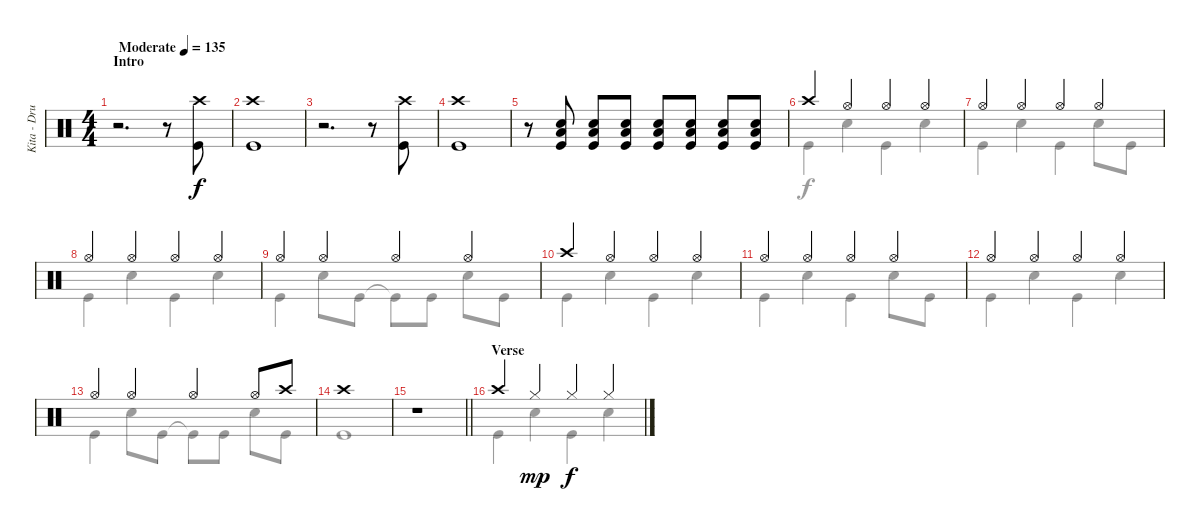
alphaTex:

\track ("Kita - Drums" "Kita - Dru") {instrument percussion}
\staff {score}
\articulation defaults
\voice
\ts (4 4)
\section ("" "Intro")
\tempo (135 "Moderate")
\clef neutral
\ks c
r.2{d dy f} r.8 ("Crash high (hit)" "Kick (hit)").8 |
("Crash high (hit)" "Kick (hit)").1 |
r.2{d} r.8 ("Crash high (hit)" "Kick (hit)").8 |
("Crash high (hit)" "Kick (hit)").1 |
r.8{volume 0} ("Snare (hit) 2" "Low Floor Tom (hit)" "Kick (hit)").8{volume 13} ("Snare (hit) 2" "Low Floor Tom (hit)" "Kick (hit)").8 ("Snare (hit) 2" "Low Floor Tom (hit)" "Kick (hit)").8 ("Snare (hit) 2" "Low Floor Tom (hit)" "Kick (hit)").8 ("Snare (hit) 2" "Low Floor Tom (hit)" "Kick (hit)").8 ("Snare (hit) 2" "Low Floor Tom (hit)" "Kick (hit)").8 ("Snare (hit) 2" "Low Floor Tom (hit)" "Kick (hit)").8 |
"Crash high (hit)".4 "Hi-Hat (open)".4 "Hi-Hat (open)".4 "Hi-Hat (open)".4 |
"Hi-Hat (open)".4 "Hi-Hat (open)".4 "Hi-Hat (open)".4 "Hi-Hat (open)".4 |
"Hi-Hat (open)".4 "Hi-Hat (open)".4 "Hi-Hat (open)".4 "Hi-Hat (open)".4 |
"Hi-Hat (open)".4 "Hi-Hat (open)".4 "Hi-Hat (open)".4 "Hi-Hat (open)".4 |
"Crash high (hit)".4 "Hi-Hat (open)".4 "Hi-Hat (open)".4 "Hi-Hat (open)".4 |
"Hi-Hat (open)".4 "Hi-Hat (open)".4 "Hi-Hat (open)".4 "Hi-Hat (open)".4 |
"Hi-Hat (open)".4 "Hi-Hat (open)".4 "Hi-Hat (open)".4 "Hi-Hat (open)".4 |
"Hi-Hat (open)".4 "Hi-Hat (open)".4 "Hi-Hat (open)".4 "Hi-Hat (open)".8 "Crash high (hit)".8 |
"Crash high (hit)".1 |
\barLineRight lightlight
r.1 |
\section ("" "Verse")
"Crash high (hit)".4 "Hi-Hat (closed)".4{dy mp} "Hi-Hat (closed)".4{dy f} "Hi-Hat (closed)".4
\voice
\clef neutral
\ottava regular
\simile none
\ks c
|
|
|
|
|
"Kick (hit)".4 "Snare (hit) 2".4 "Kick (hit)".4 "Snare (hit) 2".4 |
"Kick (hit)".4 "Snare (hit) 2".4 "Kick (hit)".4 "Snare (hit) 2".8 "Kick (hit)".8 |
"Kick (hit)".4 "Snare (hit) 2".4 "Kick (hit)".4 "Snare (hit) 2".4 |
"Kick (hit)".4 "Snare (hit) 2".8 "Kick (hit)".8 "Kick (hit)"{t}.8 "Kick (hit)".8 "Snare (hit) 2".8 "Kick (hit)".8 |
"Kick (hit)".4 "Snare (hit) 2".4 "Kick (hit)".4 "Snare (hit) 2".4 |
"Kick (hit)".4 "Snare (hit) 2".4 "Kick (hit)".4 "Snare (hit) 2".8 "Kick (hit)".8 |
"Kick (hit)".4 "Snare (hit) 2".4 "Kick (hit)".4 "Snare (hit) 2".4 |
"Kick (hit)".4 "Snare (hit) 2".8 "Kick (hit)".8 "Kick (hit)"{t}.8 "Kick (hit)".8 "Snare (hit) 2".8 "Kick (hit)".8 |
"Kick (hit)".1 |
\barLineRight lightlight
|
"Kick (hit)".4 "Snare (hit) 2".4 "Kick (hit)".4 "Snare (hit) 2".4
